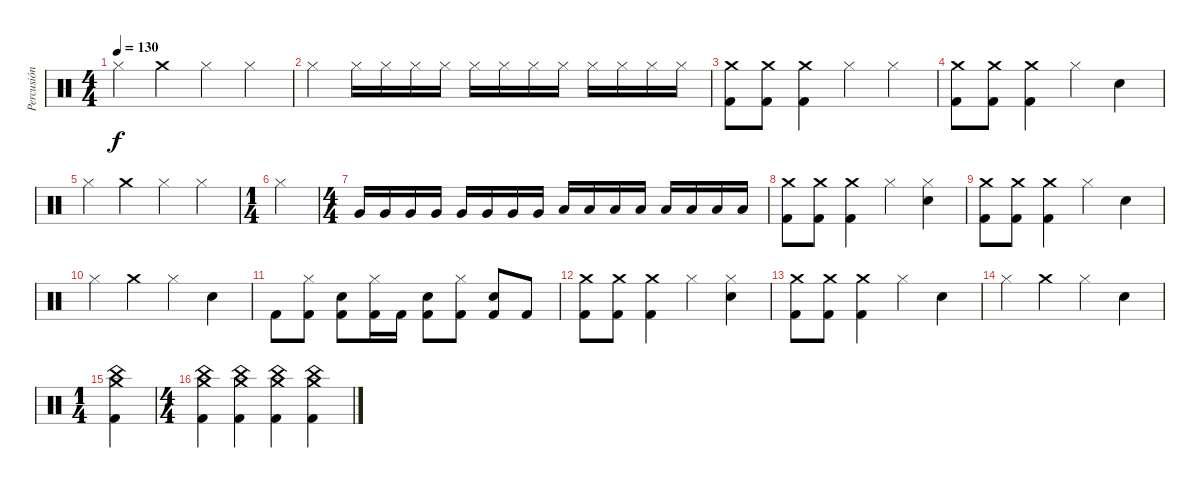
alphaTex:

\track ("Percusión" "Percusión") {instrument percussion}
\staff {score}
\articulation defaults
\ts (4 4)
\tempo 130
\clef neutral
\ks c "Hi-Hat (closed)".4{dy f} "Crash medium (hit)".4 "Hi-Hat (closed)".4 "Hi-Hat (closed)".4
|
"Hi-Hat (closed)".4 "Hi-Hat (closed)".16 "Hi-Hat (closed)".16 "Hi-Hat (closed)".16 "Hi-Hat (closed)".16 "Hi-Hat (closed)".16 "Hi-Hat (closed)".16 "Hi-Hat (closed)".16 "Hi-Hat (closed)".16 "Hi-Hat (closed)".16 "Hi-Hat (closed)".16 "Hi-Hat (closed)".16 "Hi-Hat (closed)".16 |
("Crash medium (hit)" "Kick (hit) 2").8 ("Crash medium (hit)" "Kick (hit) 2").8 ("Crash medium (hit)" "Kick (hit) 2").4 "Hi-Hat (closed)".4 "Hi-Hat (closed)".4 |
("Crash medium (hit)" "Kick (hit) 2").8 ("Crash medium (hit)" "Kick (hit) 2").8 ("Crash medium (hit)" "Kick (hit) 2").4 "Hi-Hat (closed)".4 "Snare (hit) 2".4 |
"Hi-Hat (closed)".4 "Crash medium (hit)".4 "Hi-Hat (closed)".4 "Hi-Hat (closed)".4 |
\ts (1 4)
"Hi-Hat (closed)".4 |
\ts (4 4)
"Very Low Tom (hit)".16 "Very Low Tom (hit)".16 "Very Low Tom (hit)".16 "Very Low Tom (hit)".16 "Very Low Tom (hit)".16 "Very Low Tom (hit)".16 "Very Low Tom (hit)".16 "Very Low Tom (hit)".16 "Low Floor Tom (hit)".16 "Low Floor Tom (hit)".16 "Low Floor Tom (hit)".16 "Low Floor Tom (hit)".16 "Low Floor Tom (hit)".16 "Low Floor Tom (hit)".16 "Low Floor Tom (hit)".16 "Low Floor Tom (hit)".16 |
("Crash medium (hit)" "Kick (hit) 2").8 ("Crash medium (hit)" "Kick (hit) 2").8 ("Crash medium (hit)" "Kick (hit) 2").4 "Hi-Hat (closed)".4 ("Hi-Hat (closed)" "Snare (hit) 2").4 |
("Crash medium (hit)" "Kick (hit) 2").8 ("Crash medium (hit)" "Kick (hit) 2").8 ("Crash medium (hit)" "Kick (hit) 2").4 "Hi-Hat (closed)".4 "Snare (hit) 2".4 |
"Hi-Hat (closed)".4 "Crash medium (hit)".4 "Hi-Hat (closed)".4 "Snare (hit) 2".4 |
"Kick (hit) 2".8 ("Hi-Hat (closed)" "Kick (hit) 2").8 ("Snare (hit) 2" "Kick (hit) 2").8 ("Hi-Hat (closed)" "Kick (hit) 2").16 "Kick (hit) 2".16 ("Snare (hit) 2" "Kick (hit) 2").8 ("Hi-Hat (closed)" "Kick (hit) 2").8 ("Snare (hit) 2" "Kick (hit) 2").8 "Kick (hit) 2".8 |
("Crash medium (hit)" "Kick (hit) 2").8 ("Crash medium (hit)" "Kick (hit) 2").8 ("Crash medium (hit)" "Kick (hit) 2").4 "Hi-Hat (closed)".4 ("Hi-Hat (closed)" "Snare (hit) 2").4 |
("Crash medium (hit)" "Kick (hit) 2").8 ("Crash medium (hit)" "Kick (hit) 2").8 ("Crash medium (hit)" "Kick (hit) 2").4 "Hi-Hat (closed)".4 "Snare (hit) 2".4 |
"Hi-Hat (closed)".4 "Crash medium (hit)".4 "Hi-Hat (closed)".4 "Snare (hit) 2".4 |
\ts (1 4)
("Crash medium (hit)" "China (hit)" "Kick (hit) 2").4 |
\ts (4 4)
("Crash medium (hit)" "China (hit)" "Kick (hit) 2").4 ("Crash medium (hit)" "China (hit)" "Kick (hit) 2").4 ("Crash medium (hit)" "China (hit)" "Kick (hit) 2").4 ("Crash medium (hit)" "China (hit)" "Kick (hit) 2").4
